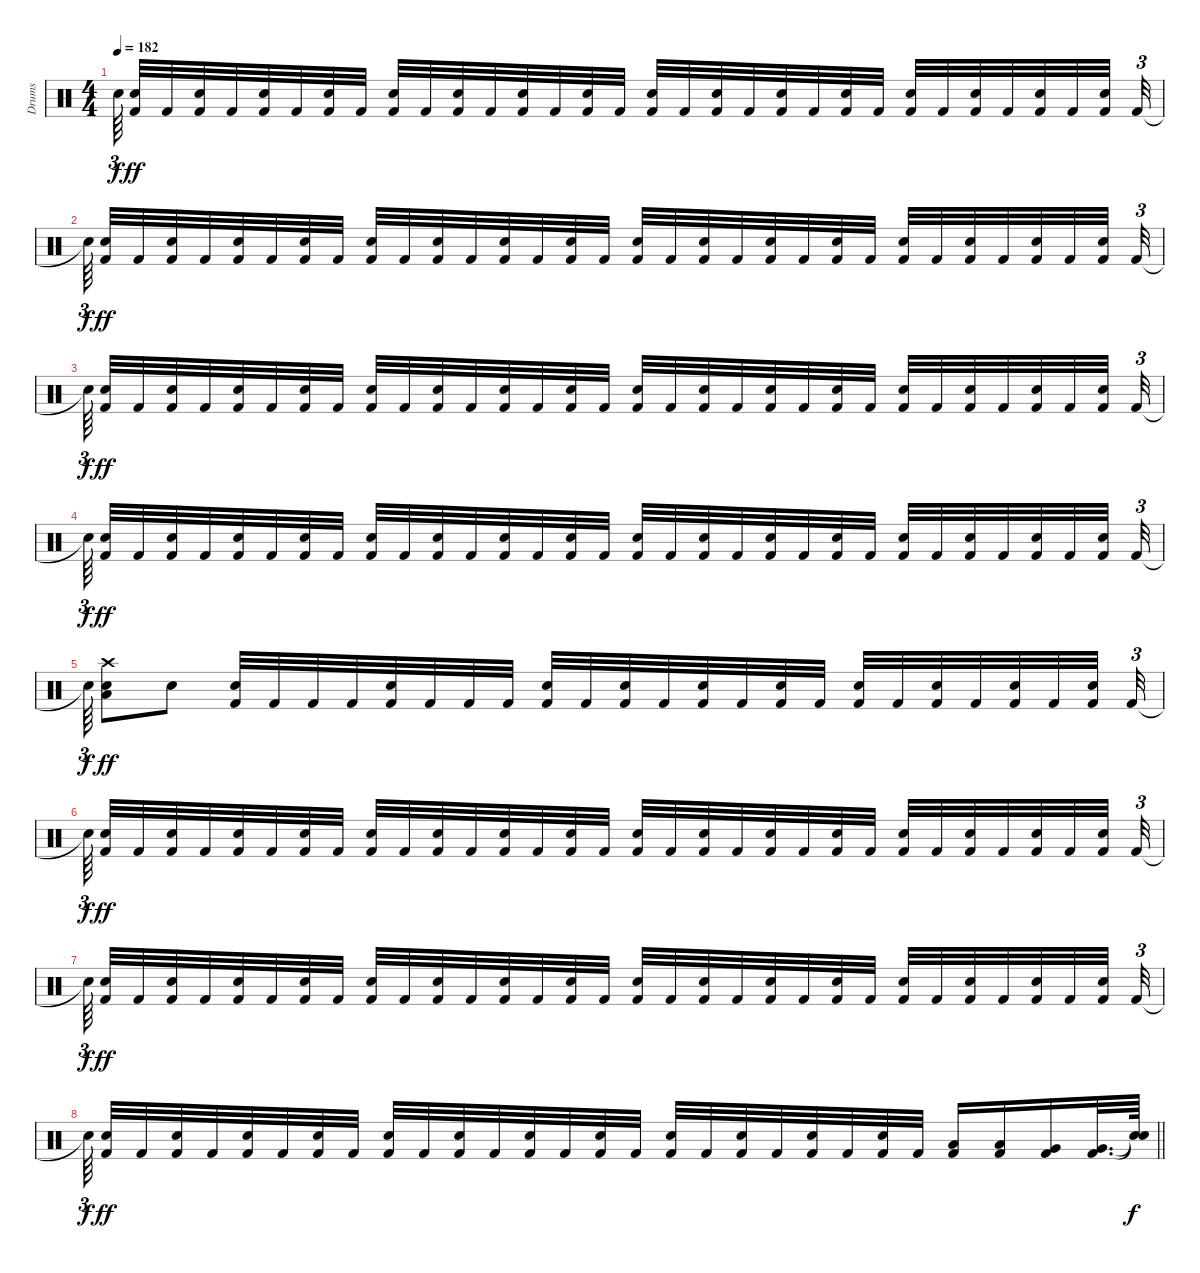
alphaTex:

\track ("Drums" "Drums") {instrument percussion}
\staff {score}
\articulation defaults
\ts (4 4)
\tempo 182
\clef neutral
\ks c "Snare (hit)"{t}.64{tu (3 2) dy f beam splitsecondary}
("Kick (hit) 2" "Snare (hit) 2").32{dy ff} "Kick (hit) 2".32 ("Kick (hit) 2" "Snare (hit) 2").32 "Kick (hit) 2".32 ("Kick (hit) 2" "Snare (hit) 2").32 "Kick (hit) 2".32 ("Kick (hit) 2" "Snare (hit) 2").32 "Kick (hit) 2".32 ("Kick (hit) 2" "Snare (hit) 2").32 "Kick (hit) 2".32 ("Kick (hit) 2" "Snare (hit) 2").32 "Kick (hit) 2".32 ("Kick (hit) 2" "Snare (hit) 2").32 "Kick (hit) 2".32 ("Kick (hit) 2" "Snare (hit) 2").32 "Kick (hit) 2".32 ("Kick (hit) 2" "Snare (hit) 2").32 "Kick (hit) 2".32 ("Kick (hit) 2" "Snare (hit) 2").32 "Kick (hit) 2".32 ("Kick (hit) 2" "Snare (hit) 2").32 "Kick (hit) 2".32 ("Kick (hit) 2" "Snare (hit) 2").32 "Kick (hit) 2".32 ("Kick (hit) 2" "Snare (hit) 2").32 "Kick (hit) 2".32 ("Kick (hit) 2" "Snare (hit) 2").32 "Kick (hit) 2".32 ("Kick (hit) 2" "Snare (hit) 2").32 "Kick (hit) 2".32 ("Kick (hit) 2" "Snare (hit) 2").32{beam splitsecondary} "Kick (hit) 2".32{tu (3 2)} |
"Snare (hit)"{t}.64{tu (3 2) dy f beam splitsecondary} ("Kick (hit) 2" "Snare (hit) 2").32{dy ff} "Kick (hit) 2".32 ("Kick (hit) 2" "Snare (hit) 2").32 "Kick (hit) 2".32 ("Kick (hit) 2" "Snare (hit) 2").32 "Kick (hit) 2".32 ("Kick (hit) 2" "Snare (hit) 2").32 "Kick (hit) 2".32 ("Kick (hit) 2" "Snare (hit) 2").32 "Kick (hit) 2".32 ("Kick (hit) 2" "Snare (hit) 2").32 "Kick (hit) 2".32 ("Kick (hit) 2" "Snare (hit) 2").32 "Kick (hit) 2".32 ("Kick (hit) 2" "Snare (hit) 2").32 "Kick (hit) 2".32 ("Kick (hit) 2" "Snare (hit) 2").32 "Kick (hit) 2".32 ("Kick (hit) 2" "Snare (hit) 2").32 "Kick (hit) 2".32 ("Kick (hit) 2" "Snare (hit) 2").32 "Kick (hit) 2".32 ("Kick (hit) 2" "Snare (hit) 2").32 "Kick (hit) 2".32 ("Kick (hit) 2" "Snare (hit) 2").32 "Kick (hit) 2".32 ("Kick (hit) 2" "Snare (hit) 2").32 "Kick (hit) 2".32 ("Kick (hit) 2" "Snare (hit) 2").32 "Kick (hit) 2".32 ("Kick (hit) 2" "Snare (hit) 2").32{beam splitsecondary} "Kick (hit) 2".32{tu (3 2)} |
"Snare (hit)"{t}.64{tu (3 2) dy f beam splitsecondary} ("Kick (hit) 2" "Snare (hit) 2").32{dy ff} "Kick (hit) 2".32 ("Kick (hit) 2" "Snare (hit) 2").32 "Kick (hit) 2".32 ("Kick (hit) 2" "Snare (hit) 2").32 "Kick (hit) 2".32 ("Kick (hit) 2" "Snare (hit) 2").32 "Kick (hit) 2".32 ("Kick (hit) 2" "Snare (hit) 2").32 "Kick (hit) 2".32 ("Kick (hit) 2" "Snare (hit) 2").32 "Kick (hit) 2".32 ("Kick (hit) 2" "Snare (hit) 2").32 "Kick (hit) 2".32 ("Kick (hit) 2" "Snare (hit) 2").32 "Kick (hit) 2".32 ("Kick (hit) 2" "Snare (hit) 2").32 "Kick (hit) 2".32 ("Kick (hit) 2" "Snare (hit) 2").32 "Kick (hit) 2".32 ("Kick (hit) 2" "Snare (hit) 2").32 "Kick (hit) 2".32 ("Kick (hit) 2" "Snare (hit) 2").32 "Kick (hit) 2".32 ("Kick (hit) 2" "Snare (hit) 2").32 "Kick (hit) 2".32 ("Kick (hit) 2" "Snare (hit) 2").32 "Kick (hit) 2".32 ("Kick (hit) 2" "Snare (hit) 2").32 "Kick (hit) 2".32 ("Kick (hit) 2" "Snare (hit) 2").32{beam splitsecondary} "Kick (hit) 2".32{tu (3 2)} |
"Snare (hit)"{t}.64{tu (3 2) dy f beam splitsecondary} ("Kick (hit) 2" "Snare (hit) 2").32{dy ff} "Kick (hit) 2".32 ("Kick (hit) 2" "Snare (hit) 2").32 "Kick (hit) 2".32 ("Kick (hit) 2" "Snare (hit) 2").32 "Kick (hit) 2".32 ("Kick (hit) 2" "Snare (hit) 2").32 "Kick (hit) 2".32 ("Kick (hit) 2" "Snare (hit) 2").32 "Kick (hit) 2".32 ("Kick (hit) 2" "Snare (hit) 2").32 "Kick (hit) 2".32 ("Kick (hit) 2" "Snare (hit) 2").32 "Kick (hit) 2".32 ("Kick (hit) 2" "Snare (hit) 2").32 "Kick (hit) 2".32 ("Kick (hit) 2" "Snare (hit) 2").32 "Kick (hit) 2".32 ("Kick (hit) 2" "Snare (hit) 2").32 "Kick (hit) 2".32 ("Kick (hit) 2" "Snare (hit) 2").32 "Kick (hit) 2".32 ("Kick (hit) 2" "Snare (hit) 2").32 "Kick (hit) 2".32 ("Kick (hit) 2" "Snare (hit) 2").32 "Kick (hit) 2".32 ("Kick (hit) 2" "Snare (hit) 2").32 "Kick (hit) 2".32 ("Kick (hit) 2" "Snare (hit) 2").32 "Kick (hit) 2".32 ("Kick (hit) 2" "Snare (hit) 2").32{beam splitsecondary} "Kick (hit) 2".32{tu (3 2)} |
"Snare (hit)"{t}.64{tu (3 2) dy f} ("Crash high (hit)" "Snare (hit) 2" "Low Tom (hit)").8{dy ff} "Snare (hit) 2".8 ("Kick (hit) 2" "Snare (hit) 2").32 "Kick (hit) 2".32 "Kick (hit) 2".32 "Kick (hit) 2".32 ("Kick (hit) 2" "Snare (hit) 2").32 "Kick (hit) 2".32 "Kick (hit) 2".32 "Kick (hit) 2".32 ("Kick (hit) 2" "Snare (hit) 2").32 "Kick (hit) 2".32 ("Kick (hit) 2" "Snare (hit) 2").32 "Kick (hit) 2".32 ("Kick (hit) 2" "Snare (hit) 2").32 "Kick (hit) 2".32 ("Kick (hit) 2" "Snare (hit) 2").32 "Kick (hit) 2".32 ("Kick (hit) 2" "Snare (hit) 2").32 "Kick (hit) 2".32 ("Kick (hit) 2" "Snare (hit) 2").32 "Kick (hit) 2".32 ("Kick (hit) 2" "Snare (hit) 2").32 "Kick (hit) 2".32 ("Kick (hit) 2" "Snare (hit) 2").32{beam splitsecondary} "Kick (hit) 2".32{tu (3 2)} |
"Snare (hit)"{t}.64{tu (3 2) dy f beam splitsecondary} ("Kick (hit) 2" "Snare (hit) 2").32{dy ff} "Kick (hit) 2".32 ("Kick (hit) 2" "Snare (hit) 2").32 "Kick (hit) 2".32 ("Kick (hit) 2" "Snare (hit) 2").32 "Kick (hit) 2".32 ("Kick (hit) 2" "Snare (hit) 2").32 "Kick (hit) 2".32 ("Kick (hit) 2" "Snare (hit) 2").32 "Kick (hit) 2".32 ("Kick (hit) 2" "Snare (hit) 2").32 "Kick (hit) 2".32 ("Kick (hit) 2" "Snare (hit) 2").32 "Kick (hit) 2".32 ("Kick (hit) 2" "Snare (hit) 2").32 "Kick (hit) 2".32 ("Kick (hit) 2" "Snare (hit) 2").32 "Kick (hit) 2".32 ("Kick (hit) 2" "Snare (hit) 2").32 "Kick (hit) 2".32 ("Kick (hit) 2" "Snare (hit) 2").32 "Kick (hit) 2".32 ("Kick (hit) 2" "Snare (hit) 2").32 "Kick (hit) 2".32 ("Kick (hit) 2" "Snare (hit) 2").32 "Kick (hit) 2".32 ("Kick (hit) 2" "Snare (hit) 2").32 "Kick (hit) 2".32 ("Kick (hit) 2" "Snare (hit) 2").32 "Kick (hit) 2".32 ("Kick (hit) 2" "Snare (hit) 2").32{beam splitsecondary} "Kick (hit) 2".32{tu (3 2)} |
"Snare (hit)"{t}.64{tu (3 2) dy f beam splitsecondary} ("Kick (hit) 2" "Snare (hit) 2").32{dy ff} "Kick (hit) 2".32 ("Kick (hit) 2" "Snare (hit) 2").32 "Kick (hit) 2".32 ("Kick (hit) 2" "Snare (hit) 2").32 "Kick (hit) 2".32 ("Kick (hit) 2" "Snare (hit) 2").32 "Kick (hit) 2".32 ("Kick (hit) 2" "Snare (hit) 2").32 "Kick (hit) 2".32 ("Kick (hit) 2" "Snare (hit) 2").32 "Kick (hit) 2".32 ("Kick (hit) 2" "Snare (hit) 2").32 "Kick (hit) 2".32 ("Kick (hit) 2" "Snare (hit) 2").32 "Kick (hit) 2".32 ("Kick (hit) 2" "Snare (hit) 2").32 "Kick (hit) 2".32 ("Kick (hit) 2" "Snare (hit) 2").32 "Kick (hit) 2".32 ("Kick (hit) 2" "Snare (hit) 2").32 "Kick (hit) 2".32 ("Kick (hit) 2" "Snare (hit) 2").32 "Kick (hit) 2".32 ("Kick (hit) 2" "Snare (hit) 2").32 "Kick (hit) 2".32 ("Kick (hit) 2" "Snare (hit) 2").32 "Kick (hit) 2".32 ("Kick (hit) 2" "Snare (hit) 2").32 "Kick (hit) 2".32 ("Kick (hit) 2" "Snare (hit) 2").32{beam splitsecondary} "Kick (hit) 2".32{tu (3 2)} |
\barLineRight lightlight "Snare (hit)"{t}.64{tu (3 2) dy f beam splitsecondary}
("Kick (hit) 2" "Snare (hit) 2").32{dy ff} "Kick (hit) 2".32 ("Kick (hit) 2" "Snare (hit) 2").32 "Kick (hit) 2".32 ("Kick (hit) 2" "Snare (hit) 2").32 "Kick (hit) 2".32 ("Kick (hit) 2" "Snare (hit) 2").32 "Kick (hit) 2".32 ("Kick (hit) 2" "Snare (hit) 2").32 "Kick (hit) 2".32 ("Kick (hit) 2" "Snare (hit) 2").32 "Kick (hit) 2".32 ("Kick (hit) 2" "Snare (hit) 2").32 "Kick (hit) 2".32 ("Kick (hit) 2" "Snare (hit) 2").32 "Kick (hit) 2".32 ("Kick (hit) 2" "Snare (hit) 2").32 "Kick (hit) 2".32 ("Kick (hit) 2" "Snare (hit) 2").32 "Kick (hit) 2".32 ("Kick (hit) 2" "Snare (hit) 2").32 "Kick (hit) 2".32 ("Kick (hit) 2" "Snare (hit) 2").32 "Kick (hit) 2".32 ("Kick (hit) 2" "Low Tom (hit)").16 ("Kick (hit) 2" "Low Tom (hit)").16 ("Kick (hit) 2" "Very Low Tom (hit)").16 ("Kick (hit) 2" "Very Low Tom (hit)").32{d} ("Snare (hit)"{t} "Snare (hit)"{t}).64{dy f}
